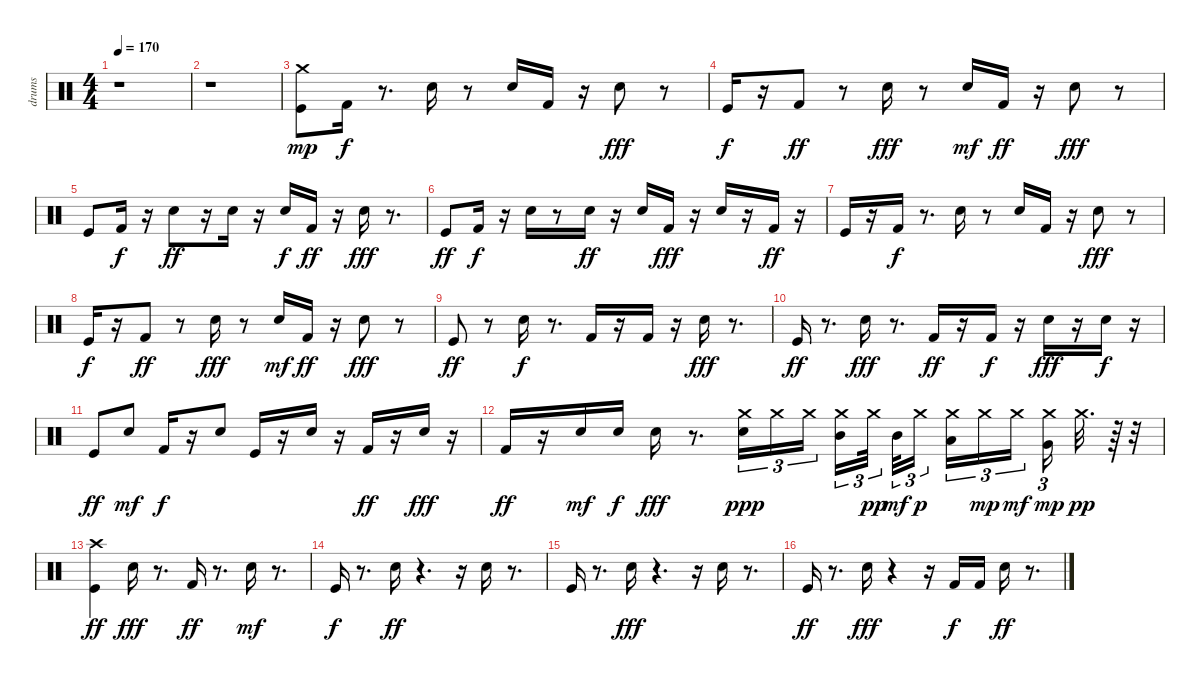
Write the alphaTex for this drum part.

\track ("drums" "drums") {instrument percussion}
\staff {score}
\articulation defaults
\ts (4 4)
\tempo 170
\clef neutral
\ks c
r.1{dy mp} |
r.1 |
("Kick (hit)" "Crash medium (hit)").8 "Kick (hit) 2".16{dy f} r.8{d} "Electric Snare (hit)".16 r.8 "Electric Snare (hit)".16 "Kick (hit) 2".16 r.16 "Electric Snare (hit)".8{dy fff} r.8 |
"Kick (hit)".16{dy f} r.16 "Kick (hit) 2".8{dy ff} r.8 "Hand Clap (hit)".16{dy fff} r.8 "Hand Clap (hit)".16{dy mf} "Kick (hit) 2".16{dy ff} r.16 "Hand Clap (hit)".8{dy fff} r.8 |
"Kick (hit)".8 "Kick (hit) 2".16{dy f} r.16 "Snare (hit) 2".8{dy ff} r.16 "Snare (hit) 2".16 r.16 "Snare (hit) 2".16{dy f} "Kick (hit) 2".16{dy ff} r.16 "Snare (hit) 2".16{dy fff} r.8{d} |
"Kick (hit)".8{dy ff} "Kick (hit) 2".16{dy f} r.16 "Snare (hit) 2".16 r.8 "Electric Snare (hit)".16{dy ff} r.16 "Electric Snare (hit)".16 "Kick (hit) 2".16{dy fff} r.16 "Snare (hit) 2".16 r.16 "Kick (hit) 2".16{dy ff} r.16 |
"Kick (hit)".16 r.16 "Kick (hit) 2".16{dy f} r.8{d} "Electric Snare (hit)".16 r.8 "Electric Snare (hit)".16 "Kick (hit) 2".16 r.16 "Electric Snare (hit)".8{dy fff} r.8 |
"Kick (hit)".16{dy f} r.16 "Kick (hit) 2".8{dy ff} r.8 "Hand Clap (hit)".16{dy fff} r.8 "Hand Clap (hit)".16{dy mf} "Kick (hit) 2".16{dy ff} r.16 "Hand Clap (hit)".8{dy fff} r.8 |
"Kick (hit)".8{dy ff} r.8 "Snare (hit) 2".16{dy f} r.8{d} "Kick (hit) 2".16 r.16 "Kick (hit) 2".16 r.16 "Snare (hit) 2".16{dy fff} r.8{d} |
"Kick (hit)".16{dy ff} r.8{d} "Snare (hit) 2".16{dy fff} r.8{d} "Kick (hit) 2".16{dy ff} r.16 "Kick (hit) 2".16{dy f} r.16 "Electric Snare (hit)".16{dy fff} r.16 "Snare (hit) 2".16{dy f} r.16 |
"Kick (hit)".8{dy ff} "Snare (hit) 2".8{dy mf} "Kick (hit) 2".16{dy f} r.16 "Snare (hit) 2".8 "Kick (hit)".16 r.16 "Snare (hit) 2".16 r.16 "Kick (hit) 2".16{dy ff} r.16 "Snare (hit) 2".16{dy fff} r.16 |
"Kick (hit) 2".16{dy ff} r.16 "Electric Snare (hit)".16{dy mf} "Electric Snare (hit)".16{dy f} "Snare (hit) 2".16{dy fff} r.8{d} ("Electric Snare (hit)" "Crash medium (hit)").16{tu (3 2) dy ppp} "Crash medium (hit)".16{tu (3 2)} "Crash medium (hit)".16{tu (3 2)} ("Mid Tom (hit)" "Crash medium (hit)").16{tu (3 2)} "Crash medium (hit)".32{tu (3 2) dy pp} "Mid Tom (hit)".32{tu (3 2) dy mf} "Crash medium (hit)".16{tu (3 2) dy p} ("Low Tom (hit)" "Crash medium (hit)").16{tu (3 2)} "Crash medium (hit)".16{tu (3 2) dy mp} "Crash medium (hit)".16{tu (3 2) dy mf} ("Very Low Tom (hit)" "Crash medium (hit)").16{tu (3 2) dy mp} "Crash medium (hit)".32{d dy pp} r.64 r.32 |
("Kick (hit)" "Crash high (hit)").4{dy ff} "Snare (hit) 2".16{dy fff} r.8{d} "Kick (hit) 2".16{dy ff} r.8{d} "Electric Snare (hit)".16{dy mf} r.8{d} |
"Kick (hit)".16{dy f} r.8{d} "Snare (hit) 2".16{dy ff} r.4{d} r.16 "Electric Snare (hit)".16 r.8{d} |
"Kick (hit)".16 r.8{d} "Snare (hit) 2".16{dy fff} r.4{d} r.16 "Electric Snare (hit)".16 r.8{d} |
"Kick (hit)".16{dy ff} r.8{d} "Snare (hit) 2".16{dy fff} r.4 r.16 "Kick (hit) 2".16{dy f} "Kick (hit) 2".16 "Electric Snare (hit)".16{dy ff} r.8{d}
